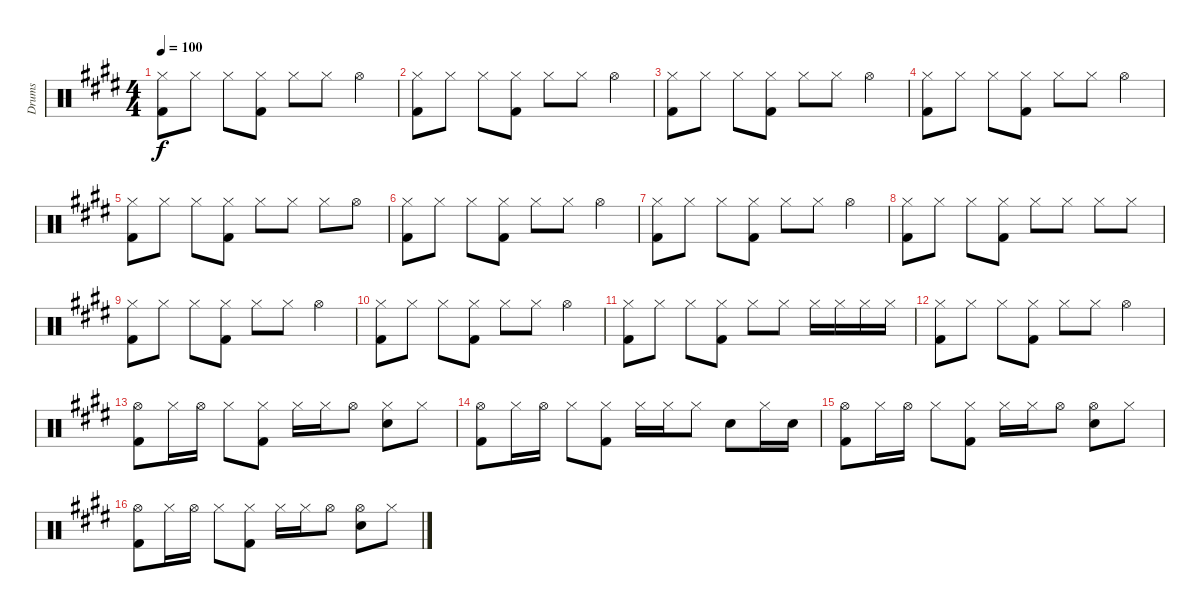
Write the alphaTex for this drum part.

\track ("Drums" "Drums") {instrument percussion}
\staff {score}
\articulation defaults
\ts (4 4)
\tempo 100
\clef neutral
\ks e
("Hi-Hat (closed)" "Kick (hit) 2").8{dy f} "Hi-Hat (closed)".8 "Hi-Hat (closed)".8 ("Hi-Hat (closed)" "Kick (hit) 2").8 "Hi-Hat (closed)".8 "Hi-Hat (closed)".8 "Hi-Hat (open)".4 |
("Hi-Hat (closed)" "Kick (hit) 2").8 "Hi-Hat (closed)".8 "Hi-Hat (closed)".8 ("Hi-Hat (closed)" "Kick (hit) 2").8 "Hi-Hat (closed)".8 "Hi-Hat (closed)".8 "Hi-Hat (open)".4 |
("Hi-Hat (closed)" "Kick (hit) 2").8 "Hi-Hat (closed)".8 "Hi-Hat (closed)".8 ("Hi-Hat (closed)" "Kick (hit) 2").8 "Hi-Hat (closed)".8 "Hi-Hat (closed)".8 "Hi-Hat (open)".4 |
("Hi-Hat (closed)" "Kick (hit) 2").8 "Hi-Hat (closed)".8 "Hi-Hat (closed)".8 ("Hi-Hat (closed)" "Kick (hit) 2").8 "Hi-Hat (closed)".8 "Hi-Hat (closed)".8 "Hi-Hat (open)".4 |
("Hi-Hat (closed)" "Kick (hit) 2").8 "Hi-Hat (closed)".8 "Hi-Hat (closed)".8 ("Hi-Hat (closed)" "Kick (hit) 2").8 "Hi-Hat (closed)".8 "Hi-Hat (closed)".8 "Hi-Hat (closed)".8 "Hi-Hat (open)".8 |
("Hi-Hat (closed)" "Kick (hit) 2").8 "Hi-Hat (closed)".8 "Hi-Hat (closed)".8 ("Hi-Hat (closed)" "Kick (hit) 2").8 "Hi-Hat (closed)".8 "Hi-Hat (closed)".8 "Hi-Hat (open)".4 |
("Hi-Hat (closed)" "Kick (hit) 2").8 "Hi-Hat (closed)".8 "Hi-Hat (closed)".8 ("Hi-Hat (closed)" "Kick (hit) 2").8 "Hi-Hat (closed)".8 "Hi-Hat (closed)".8 "Hi-Hat (open)".4 |
("Hi-Hat (closed)" "Kick (hit) 2").8 "Hi-Hat (closed)".8 "Hi-Hat (closed)".8 ("Hi-Hat (closed)" "Kick (hit) 2").8 "Hi-Hat (closed)".8 "Hi-Hat (closed)".8 "Hi-Hat (closed)".8 "Hi-Hat (closed)".8 |
("Hi-Hat (closed)" "Kick (hit) 2").8 "Hi-Hat (closed)".8 "Hi-Hat (closed)".8 ("Hi-Hat (closed)" "Kick (hit) 2").8 "Hi-Hat (closed)".8 "Hi-Hat (closed)".8 "Hi-Hat (open)".4 |
("Hi-Hat (closed)" "Kick (hit) 2").8 "Hi-Hat (closed)".8 "Hi-Hat (closed)".8 ("Hi-Hat (closed)" "Kick (hit) 2").8 "Hi-Hat (closed)".8 "Hi-Hat (closed)".8 "Hi-Hat (open)".4 |
("Hi-Hat (closed)" "Kick (hit) 2").8 "Hi-Hat (closed)".8 "Hi-Hat (closed)".8 ("Hi-Hat (closed)" "Kick (hit) 2").8 "Hi-Hat (closed)".8 "Hi-Hat (closed)".8 "Hi-Hat (closed)".16 "Hi-Hat (closed)".16 "Hi-Hat (closed)".16 "Hi-Hat (closed)".16 |
("Hi-Hat (closed)" "Kick (hit) 2").8 "Hi-Hat (closed)".8 "Hi-Hat (closed)".8 ("Hi-Hat (closed)" "Kick (hit) 2").8 "Hi-Hat (closed)".8 "Hi-Hat (closed)".8 "Hi-Hat (open)".4 |
("Hi-Hat (open)" "Kick (hit) 2").8 "Hi-Hat (closed)".16 "Hi-Hat (open)".16 "Hi-Hat (closed)".8 ("Hi-Hat (closed)" "Kick (hit) 2").8 "Hi-Hat (closed)".16 "Hi-Hat (closed)".16 "Hi-Hat (open)".8 ("Hi-Hat (closed)" "Electric Snare (hit)").8 "Hi-Hat (closed)".8 |
("Hi-Hat (open)" "Kick (hit) 2").8 "Hi-Hat (closed)".16 "Hi-Hat (open)".16 "Hi-Hat (closed)".8 ("Hi-Hat (closed)" "Kick (hit) 2").8 "Hi-Hat (closed)".16 "Hi-Hat (closed)".16 "Hi-Hat (closed)".8 "Electric Snare (hit)".8 "Hi-Hat (closed)".16 "Electric Snare (hit)".16 |
("Hi-Hat (open)" "Kick (hit) 2").8 "Hi-Hat (closed)".16 "Hi-Hat (open)".16 "Hi-Hat (closed)".8 ("Hi-Hat (closed)" "Kick (hit) 2").8 "Hi-Hat (closed)".16 "Hi-Hat (closed)".16 "Hi-Hat (open)".8 ("Hi-Hat (open)" "Electric Snare (hit)").8 "Hi-Hat (closed)".8 |
("Hi-Hat (open)" "Kick (hit) 2").8 "Hi-Hat (closed)".16 "Hi-Hat (open)".16 "Hi-Hat (closed)".8 ("Hi-Hat (closed)" "Kick (hit) 2").8 "Hi-Hat (closed)".16 "Hi-Hat (closed)".16 "Hi-Hat (open)".8 ("Hi-Hat (open)" "Electric Snare (hit)").8 "Hi-Hat (closed)".8
